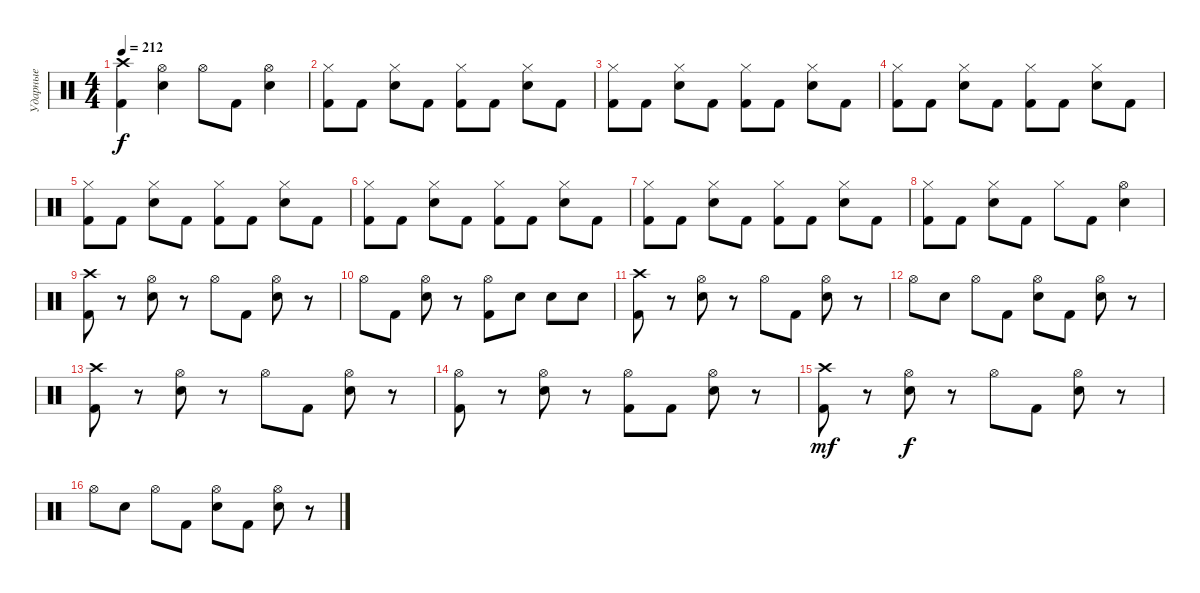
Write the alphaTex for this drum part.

\track ("Ударные" "Ударные") {instrument percussion}
\staff {score}
\articulation defaults
\ts (4 4)
\tempo 212
\clef neutral
\ks c
("Crash high (hit)" "Kick (hit) 2").4{dy f} ("Hi-Hat (open)" "Electric Snare (hit)").4 "Hi-Hat (open)".8 "Kick (hit) 2".8 ("Hi-Hat (open)" "Electric Snare (hit)").4 |
("Hi-Hat (closed)" "Kick (hit) 2").8 "Kick (hit) 2".8 ("Hi-Hat (closed)" "Electric Snare (hit)").8 "Kick (hit) 2".8 ("Hi-Hat (closed)" "Kick (hit) 2").8 "Kick (hit) 2".8 ("Hi-Hat (closed)" "Electric Snare (hit)").8 "Kick (hit) 2".8 |
("Hi-Hat (closed)" "Kick (hit) 2").8 "Kick (hit) 2".8 ("Hi-Hat (closed)" "Electric Snare (hit)").8 "Kick (hit) 2".8 ("Hi-Hat (closed)" "Kick (hit) 2").8 "Kick (hit) 2".8 ("Hi-Hat (closed)" "Electric Snare (hit)").8 "Kick (hit) 2".8 |
("Hi-Hat (closed)" "Kick (hit) 2").8 "Kick (hit) 2".8 ("Hi-Hat (closed)" "Electric Snare (hit)").8 "Kick (hit) 2".8 ("Hi-Hat (closed)" "Kick (hit) 2").8 "Kick (hit) 2".8 ("Hi-Hat (closed)" "Electric Snare (hit)").8 "Kick (hit) 2".8 |
("Hi-Hat (closed)" "Kick (hit) 2").8 "Kick (hit) 2".8 ("Hi-Hat (closed)" "Electric Snare (hit)").8 "Kick (hit) 2".8 ("Hi-Hat (closed)" "Kick (hit) 2").8 "Kick (hit) 2".8 ("Hi-Hat (closed)" "Electric Snare (hit)").8 "Kick (hit) 2".8 |
("Hi-Hat (closed)" "Kick (hit) 2").8 "Kick (hit) 2".8 ("Hi-Hat (closed)" "Electric Snare (hit)").8 "Kick (hit) 2".8 ("Hi-Hat (closed)" "Kick (hit) 2").8 "Kick (hit) 2".8 ("Hi-Hat (closed)" "Electric Snare (hit)").8 "Kick (hit) 2".8 |
("Hi-Hat (closed)" "Kick (hit) 2").8 "Kick (hit) 2".8 ("Hi-Hat (closed)" "Electric Snare (hit)").8 "Kick (hit) 2".8 ("Hi-Hat (closed)" "Kick (hit) 2").8 "Kick (hit) 2".8 ("Hi-Hat (closed)" "Electric Snare (hit)").8 "Kick (hit) 2".8 |
("Hi-Hat (closed)" "Kick (hit) 2").8 "Kick (hit) 2".8 ("Hi-Hat (closed)" "Electric Snare (hit)").8 "Kick (hit) 2".8 "Hi-Hat (closed)".8 "Kick (hit) 2".8 ("Hi-Hat (open)" "Electric Snare (hit)").4 |
("Crash high (hit)" "Kick (hit) 2").8 r.8 ("Hi-Hat (open)" "Electric Snare (hit)").8 r.8 "Hi-Hat (open)".8 "Kick (hit) 2".8 ("Hi-Hat (open)" "Electric Snare (hit)").8 r.8 |
"Hi-Hat (open)".8 "Kick (hit) 2".8 ("Hi-Hat (open)" "Electric Snare (hit)").8 r.8 ("Hi-Hat (open)" "Kick (hit) 2").8 "Electric Snare (hit)".8 "Electric Snare (hit)".8 "Electric Snare (hit)".8 |
("Crash high (hit)" "Kick (hit) 2").8 r.8 ("Hi-Hat (open)" "Electric Snare (hit)").8 r.8 "Hi-Hat (open)".8 "Kick (hit) 2".8 ("Hi-Hat (open)" "Electric Snare (hit)").8 r.8 |
"Hi-Hat (open)".8 "Electric Snare (hit)".8 "Hi-Hat (open)".8 "Kick (hit) 2".8 ("Hi-Hat (open)" "Electric Snare (hit)").8 "Kick (hit) 2".8 ("Hi-Hat (open)" "Electric Snare (hit)").8 r.8 |
("Crash high (hit)" "Kick (hit) 2").8 r.8 ("Hi-Hat (open)" "Electric Snare (hit)").8 r.8 "Hi-Hat (open)".8 "Kick (hit) 2".8 ("Hi-Hat (open)" "Electric Snare (hit)").8 r.8 |
("Hi-Hat (open)" "Kick (hit) 2").8 r.8 ("Hi-Hat (open)" "Electric Snare (hit)").8 r.8 ("Hi-Hat (open)" "Kick (hit) 2").8 "Kick (hit) 2".8 ("Hi-Hat (open)" "Electric Snare (hit)").8 r.8 |
("Crash high (hit)" "Kick (hit) 2").8{dy mf} r.8 ("Hi-Hat (open)" "Electric Snare (hit)").8{dy f} r.8 "Hi-Hat (open)".8 "Kick (hit) 2".8 ("Hi-Hat (open)" "Electric Snare (hit)").8 r.8 |
"Hi-Hat (open)".8 "Electric Snare (hit)".8 "Hi-Hat (open)".8 "Kick (hit) 2".8 ("Hi-Hat (open)" "Electric Snare (hit)").8 "Kick (hit) 2".8 ("Hi-Hat (open)" "Electric Snare (hit)").8 r.8
